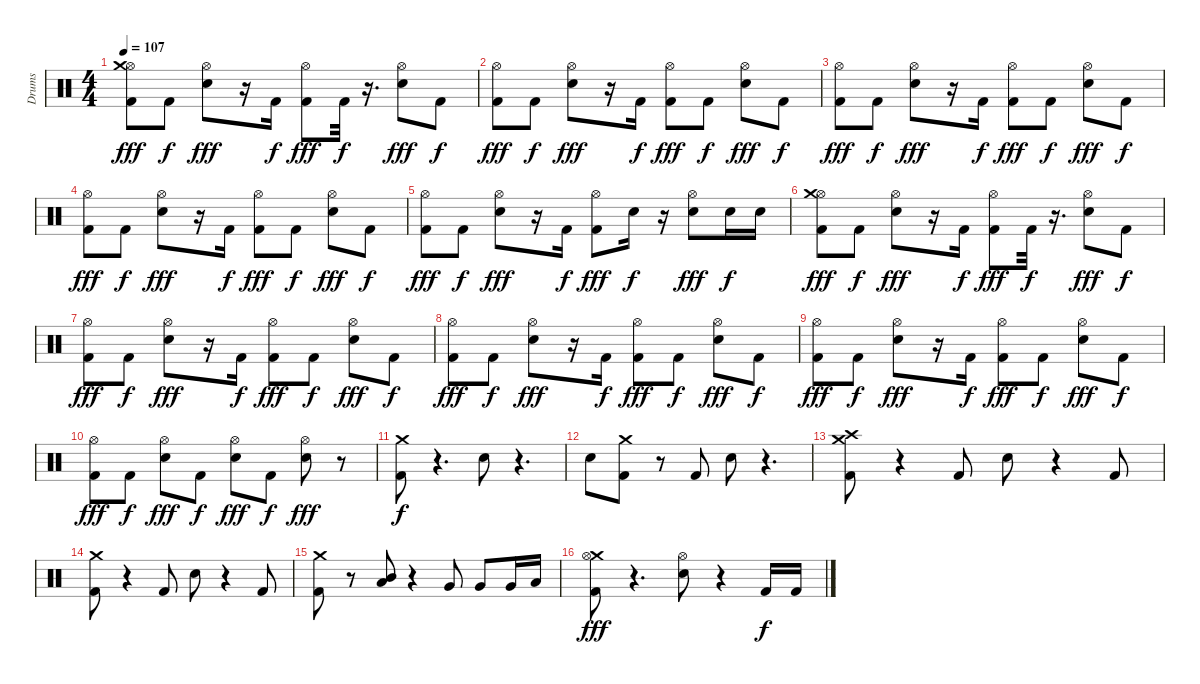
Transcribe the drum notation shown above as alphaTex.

\track ("Drums" "Drums") {instrument percussion}
\staff {score}
\articulation defaults
\ts (4 4)
\tempo 107
\clef neutral
\ks c
("Hi-Hat (open)" "Kick (hit) 2" "Crash medium (hit)").8{dy fff} "Kick (hit) 2".8{dy f} ("Snare (hit) 2" "Hi-Hat (open)").8{dy fff} r.16 "Kick (hit) 2".16{dy f} ("Kick (hit) 2" "Hi-Hat (open)").8{dy fff} "Kick (hit) 2".32{dy f} r.16{d} ("Snare (hit) 2" "Hi-Hat (open)").8{dy fff} "Kick (hit) 2".8{dy f} |
("Kick (hit) 2" "Hi-Hat (open)").8{dy fff} "Kick (hit) 2".8{dy f} ("Snare (hit) 2" "Hi-Hat (open)").8{dy fff} r.16 "Kick (hit) 2".16{dy f} ("Kick (hit) 2" "Hi-Hat (open)").8{dy fff} "Kick (hit) 2".8{dy f} ("Snare (hit) 2" "Hi-Hat (open)").8{dy fff} "Kick (hit) 2".8{dy f} |
("Kick (hit) 2" "Hi-Hat (open)").8{dy fff} "Kick (hit) 2".8{dy f} ("Hi-Hat (open)" "Snare (hit) 2").8{dy fff} r.16 "Kick (hit) 2".16{dy f} ("Kick (hit) 2" "Hi-Hat (open)").8{dy fff} "Kick (hit) 2".8{dy f} ("Snare (hit) 2" "Hi-Hat (open)").8{dy fff} "Kick (hit) 2".8{dy f} |
("Kick (hit) 2" "Hi-Hat (open)").8{dy fff} "Kick (hit) 2".8{dy f} ("Hi-Hat (open)" "Snare (hit) 2").8{dy fff} r.16 "Kick (hit) 2".16{dy f} ("Kick (hit) 2" "Hi-Hat (open)").8{dy fff} "Kick (hit) 2".8{dy f} ("Snare (hit) 2" "Hi-Hat (open)").8{dy fff} "Kick (hit) 2".8{dy f} |
("Kick (hit) 2" "Hi-Hat (open)").8{dy fff} "Kick (hit) 2".8{dy f} ("Hi-Hat (open)" "Snare (hit) 2").8{dy fff} r.16 "Kick (hit) 2".16{dy f} ("Kick (hit) 2" "Hi-Hat (open)").8{dy fff} "Snare (hit) 2".16{dy f} r.16 ("Snare (hit) 2" "Hi-Hat (open)").8{dy fff} "Snare (hit) 2".16{dy f} "Snare (hit) 2".16 |
("Hi-Hat (open)" "Kick (hit) 2" "Crash medium (hit)").8{dy fff} "Kick (hit) 2".8{dy f} ("Snare (hit) 2" "Hi-Hat (open)").8{dy fff} r.16 "Kick (hit) 2".16{dy f} ("Kick (hit) 2" "Hi-Hat (open)").8{dy fff} "Kick (hit) 2".32{dy f} r.16{d} ("Snare (hit) 2" "Hi-Hat (open)").8{dy fff} "Kick (hit) 2".8{dy f} |
("Kick (hit) 2" "Hi-Hat (open)").8{dy fff} "Kick (hit) 2".8{dy f} ("Snare (hit) 2" "Hi-Hat (open)").8{dy fff} r.16 "Kick (hit) 2".16{dy f} ("Kick (hit) 2" "Hi-Hat (open)").8{dy fff} "Kick (hit) 2".8{dy f} ("Snare (hit) 2" "Hi-Hat (open)").8{dy fff} "Kick (hit) 2".8{dy f} |
("Kick (hit) 2" "Hi-Hat (open)").8{dy fff} "Kick (hit) 2".8{dy f} ("Hi-Hat (open)" "Snare (hit) 2").8{dy fff} r.16 "Kick (hit) 2".16{dy f} ("Kick (hit) 2" "Hi-Hat (open)").8{dy fff} "Kick (hit) 2".8{dy f} ("Snare (hit) 2" "Hi-Hat (open)").8{dy fff} "Kick (hit) 2".8{dy f} |
("Kick (hit) 2" "Hi-Hat (open)").8{dy fff} "Kick (hit) 2".8{dy f} ("Hi-Hat (open)" "Snare (hit) 2").8{dy fff} r.16 "Kick (hit) 2".16{dy f} ("Kick (hit) 2" "Hi-Hat (open)").8{dy fff} "Kick (hit) 2".8{dy f} ("Snare (hit) 2" "Hi-Hat (open)").8{dy fff} "Kick (hit) 2".8{dy f} |
("Kick (hit) 2" "Hi-Hat (open)").8{dy fff} "Kick (hit) 2".8{dy f} ("Hi-Hat (open)" "Snare (hit) 2").8{dy fff} "Kick (hit) 2".8{dy f} ("Snare (hit) 2" "Hi-Hat (open)").8{dy fff} "Kick (hit) 2".8{dy f} ("Snare (hit) 2" "Hi-Hat (open)").8{dy fff} r.8 |
("Crash medium (hit)" "Kick (hit) 2").8{dy f} r.4{d} "Snare (hit) 2".8 r.4{d} |
"Snare (hit) 2".8 ("Crash medium (hit)" "Kick (hit) 2").8 r.8 "Kick (hit) 2".8 "Snare (hit) 2".8 r.4{d} |
("Crash high (hit)" "Crash medium (hit)" "Kick (hit) 2").8 r.4 "Kick (hit) 2".8 "Snare (hit) 2".8 r.4 "Kick (hit) 2".8 |
("Crash medium (hit)" "Kick (hit) 2").8 r.4 "Kick (hit) 2".8 "Snare (hit) 2".8 r.4 "Kick (hit) 2".8 |
("Crash medium (hit)" "Kick (hit) 2").8 r.8 ("Low Tom (hit)" "Mid Tom (hit)").8 r.4 "Very Low Tom (hit)".8 "Very Low Tom (hit)".8 "Very Low Tom (hit)".16 "Low Floor Tom (hit)".16 |
("Kick (hit) 2" "Crash medium (hit)" "Hi-Hat (open)").8{dy fff} r.4{d} ("Hi-Hat (open)" "Snare (hit) 2").8 r.4 "Kick (hit) 2".16{dy f} "Kick (hit) 2".16
